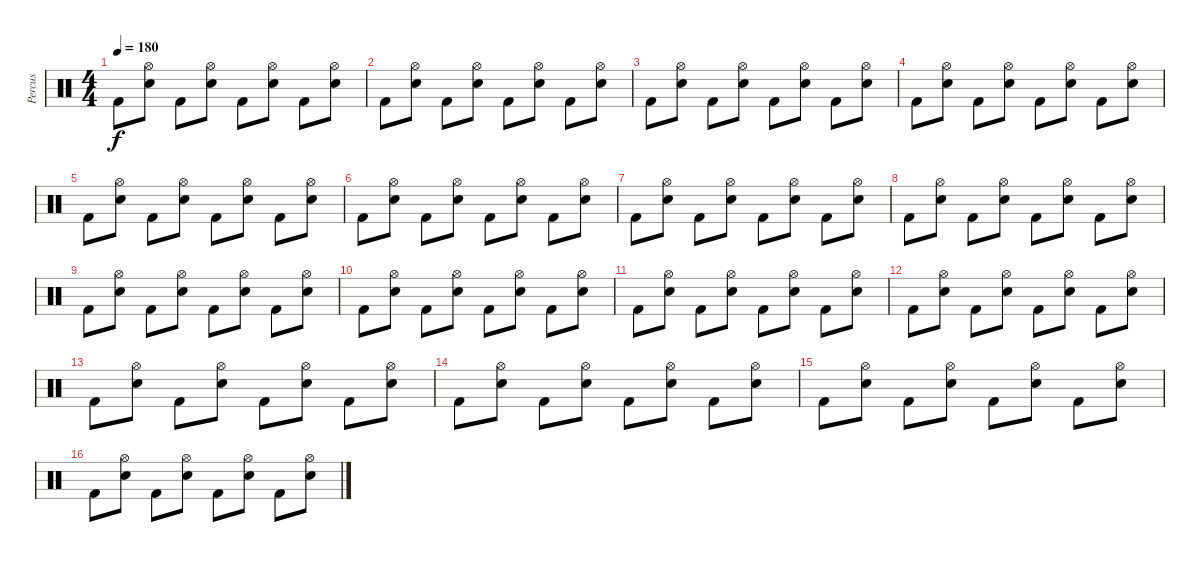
\track ("Percus" "Percus") {instrument percussion}
\staff {score}
\articulation defaults
\ts (4 4)
\tempo 180
\clef neutral
\ks c "Kick (hit) 2".8{dy f}
("Hi-Hat (open)" "Snare (hit) 2").8 "Kick (hit) 2".8 ("Hi-Hat (open)" "Snare (hit) 2").8 "Kick (hit) 2".8 ("Hi-Hat (open)" "Snare (hit) 2").8 "Kick (hit) 2".8 ("Hi-Hat (open)" "Snare (hit) 2").8 |
"Kick (hit) 2".8 ("Hi-Hat (open)" "Snare (hit) 2").8 "Kick (hit) 2".8 ("Hi-Hat (open)" "Snare (hit) 2").8 "Kick (hit) 2".8 ("Hi-Hat (open)" "Snare (hit) 2").8 "Kick (hit) 2".8 ("Hi-Hat (open)" "Snare (hit) 2").8 |
"Kick (hit) 2".8 ("Hi-Hat (open)" "Snare (hit) 2").8 "Kick (hit) 2".8 ("Hi-Hat (open)" "Snare (hit) 2").8 "Kick (hit) 2".8 ("Hi-Hat (open)" "Snare (hit) 2").8 "Kick (hit) 2".8 ("Hi-Hat (open)" "Snare (hit) 2").8 |
"Kick (hit) 2".8 ("Hi-Hat (open)" "Snare (hit) 2").8 "Kick (hit) 2".8 ("Hi-Hat (open)" "Snare (hit) 2").8 "Kick (hit) 2".8 ("Hi-Hat (open)" "Snare (hit) 2").8 "Kick (hit) 2".8 ("Hi-Hat (open)" "Snare (hit) 2").8 |
"Kick (hit) 2".8 ("Hi-Hat (open)" "Snare (hit) 2").8 "Kick (hit) 2".8 ("Hi-Hat (open)" "Snare (hit) 2").8 "Kick (hit) 2".8 ("Hi-Hat (open)" "Snare (hit) 2").8 "Kick (hit) 2".8 ("Hi-Hat (open)" "Snare (hit) 2").8 |
"Kick (hit) 2".8 ("Hi-Hat (open)" "Snare (hit) 2").8 "Kick (hit) 2".8 ("Hi-Hat (open)" "Snare (hit) 2").8 "Kick (hit) 2".8 ("Hi-Hat (open)" "Snare (hit) 2").8 "Kick (hit) 2".8 ("Hi-Hat (open)" "Snare (hit) 2").8 |
"Kick (hit) 2".8 ("Hi-Hat (open)" "Snare (hit) 2").8 "Kick (hit) 2".8 ("Hi-Hat (open)" "Snare (hit) 2").8 "Kick (hit) 2".8 ("Hi-Hat (open)" "Snare (hit) 2").8 "Kick (hit) 2".8 ("Hi-Hat (open)" "Snare (hit) 2").8 |
"Kick (hit) 2".8 ("Hi-Hat (open)" "Snare (hit) 2").8 "Kick (hit) 2".8 ("Hi-Hat (open)" "Snare (hit) 2").8 "Kick (hit) 2".8 ("Hi-Hat (open)" "Snare (hit) 2").8 "Kick (hit) 2".8 ("Hi-Hat (open)" "Snare (hit) 2").8 |
"Kick (hit) 2".8 ("Hi-Hat (open)" "Snare (hit) 2").8 "Kick (hit) 2".8 ("Hi-Hat (open)" "Snare (hit) 2").8 "Kick (hit) 2".8 ("Hi-Hat (open)" "Snare (hit) 2").8 "Kick (hit) 2".8 ("Hi-Hat (open)" "Snare (hit) 2").8 |
"Kick (hit) 2".8 ("Hi-Hat (open)" "Snare (hit) 2").8 "Kick (hit) 2".8 ("Hi-Hat (open)" "Snare (hit) 2").8 "Kick (hit) 2".8 ("Hi-Hat (open)" "Snare (hit) 2").8 "Kick (hit) 2".8 ("Hi-Hat (open)" "Snare (hit) 2").8 |
"Kick (hit) 2".8 ("Hi-Hat (open)" "Snare (hit) 2").8 "Kick (hit) 2".8 ("Hi-Hat (open)" "Snare (hit) 2").8 "Kick (hit) 2".8 ("Hi-Hat (open)" "Snare (hit) 2").8 "Kick (hit) 2".8 ("Hi-Hat (open)" "Snare (hit) 2").8 |
"Kick (hit) 2".8 ("Hi-Hat (open)" "Snare (hit) 2").8 "Kick (hit) 2".8 ("Hi-Hat (open)" "Snare (hit) 2").8 "Kick (hit) 2".8 ("Hi-Hat (open)" "Snare (hit) 2").8 "Kick (hit) 2".8 ("Hi-Hat (open)" "Snare (hit) 2").8 |
"Kick (hit) 2".8 ("Hi-Hat (open)" "Snare (hit) 2").8 "Kick (hit) 2".8 ("Hi-Hat (open)" "Snare (hit) 2").8 "Kick (hit) 2".8 ("Hi-Hat (open)" "Snare (hit) 2").8 "Kick (hit) 2".8 ("Hi-Hat (open)" "Snare (hit) 2").8 |
"Kick (hit) 2".8 ("Hi-Hat (open)" "Snare (hit) 2").8 "Kick (hit) 2".8 ("Hi-Hat (open)" "Snare (hit) 2").8 "Kick (hit) 2".8 ("Hi-Hat (open)" "Snare (hit) 2").8 "Kick (hit) 2".8 ("Hi-Hat (open)" "Snare (hit) 2").8 |
"Kick (hit) 2".8 ("Hi-Hat (open)" "Snare (hit) 2").8 "Kick (hit) 2".8 ("Hi-Hat (open)" "Snare (hit) 2").8 "Kick (hit) 2".8 ("Hi-Hat (open)" "Snare (hit) 2").8 "Kick (hit) 2".8 ("Hi-Hat (open)" "Snare (hit) 2").8 |
"Kick (hit) 2".8 ("Hi-Hat (open)" "Snare (hit) 2").8 "Kick (hit) 2".8 ("Hi-Hat (open)" "Snare (hit) 2").8 "Kick (hit) 2".8 ("Hi-Hat (open)" "Snare (hit) 2").8 "Kick (hit) 2".8 ("Hi-Hat (open)" "Snare (hit) 2").8
